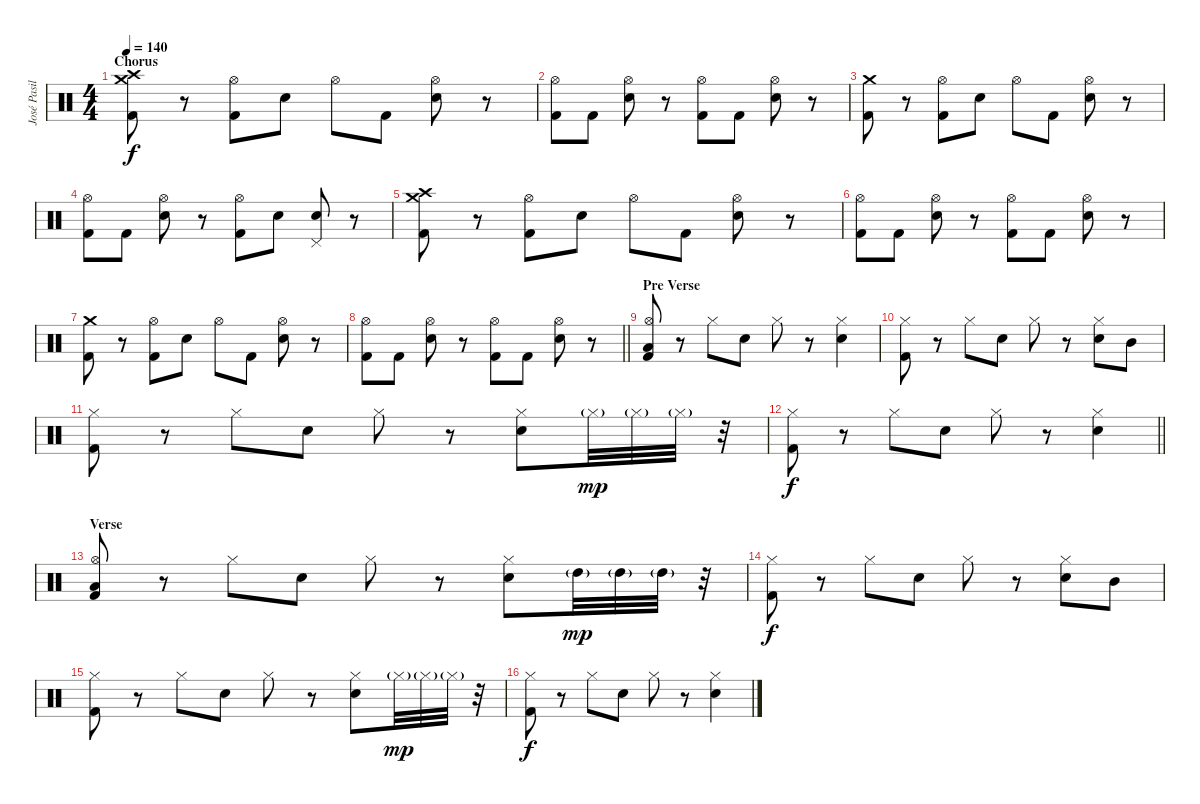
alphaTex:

\track ("José Pasillas [Drums]" "José Pasil") {instrument percussion}
\staff {score}
\articulation defaults
\ts (4 4)
\section ("" "Chorus")
\tempo 140
\clef neutral
\ks c
("Kick (hit) 2" "Crash high (hit)" "Crash medium (hit)").8{dy f} r.8 ("Kick (hit) 2" "Hi-Hat (open)").8 "Electric Snare (hit)".8 "Hi-Hat (open)".8 "Kick (hit) 2".8 ("Electric Snare (hit)" "Hi-Hat (open)").8 r.8 |
("Kick (hit) 2" "Hi-Hat (open)").8 "Kick (hit) 2".8 ("Electric Snare (hit)" "Hi-Hat (open)").8 r.8 ("Kick (hit) 2" "Hi-Hat (open)").8 "Kick (hit) 2".8 ("Electric Snare (hit)" "Hi-Hat (open)").8 r.8 |
("Kick (hit) 2" "Crash medium (hit)").8 r.8 ("Kick (hit) 2" "Hi-Hat (open)").8 "Electric Snare (hit)".8 "Hi-Hat (open)".8 "Kick (hit) 2".8 ("Electric Snare (hit)" "Hi-Hat (open)").8 r.8 |
("Kick (hit) 2" "Hi-Hat (open)").8 "Kick (hit) 2".8 ("Electric Snare (hit)" "Hi-Hat (open)").8 r.8 ("Kick (hit) 2" "Hi-Hat (open)").8 "Electric Snare (hit)".8 ("Electric Snare (hit)" "Pedal Hi-Hat (hit)").8 r.8 |
("Kick (hit) 2" "Crash high (hit)" "Crash medium (hit)").8 r.8 ("Kick (hit) 2" "Hi-Hat (open)").8 "Electric Snare (hit)".8 "Hi-Hat (open)".8 "Kick (hit) 2".8 ("Electric Snare (hit)" "Hi-Hat (open)").8 r.8 |
("Kick (hit) 2" "Hi-Hat (open)").8 "Kick (hit) 2".8 ("Electric Snare (hit)" "Hi-Hat (open)").8 r.8 ("Kick (hit) 2" "Hi-Hat (open)").8 "Kick (hit) 2".8 ("Electric Snare (hit)" "Hi-Hat (open)").8 r.8 |
("Kick (hit) 2" "Crash medium (hit)").8 r.8 ("Kick (hit) 2" "Hi-Hat (open)").8 "Electric Snare (hit)".8 "Hi-Hat (open)".8 "Kick (hit) 2".8 ("Electric Snare (hit)" "Hi-Hat (open)").8 r.8 |
\barLineRight lightlight
("Kick (hit) 2" "Hi-Hat (open)").8 "Kick (hit) 2".8 ("Electric Snare (hit)" "Hi-Hat (open)").8 r.8 ("Kick (hit) 2" "Hi-Hat (open)").8 "Kick (hit) 2".8 ("Electric Snare (hit)" "Hi-Hat (open)").8 r.8 |
\section ("" "Pre Verse")
("Kick (hit) 2" "Low Tom (hit)" "Hi-Hat (open)").8 r.8 "Hi-Hat (closed)".8 "Electric Snare (hit)".8 "Hi-Hat (closed)".8 r.8 ("Electric Snare (hit)" "Hi-Hat (closed)").4 |
("Kick (hit) 2" "Hi-Hat (closed)").8 r.8 "Hi-Hat (closed)".8 "Electric Snare (hit)".8 "Hi-Hat (closed)".8 r.8 ("Electric Snare (hit)" "Hi-Hat (closed)").8 "Mid Tom (hit)".8 |
("Kick (hit) 2" "Hi-Hat (closed)").8 r.8 "Hi-Hat (closed)".8 "Electric Snare (hit)".8 "Hi-Hat (closed)".8 r.8 ("Electric Snare (hit)" "Hi-Hat (closed)").8 "Hi-Hat (closed)"{g}.32{dy mp} "Hi-Hat (closed)"{g}.32 "Hi-Hat (closed)"{g}.32 r.32 |
\barLineRight lightlight
("Kick (hit) 2" "Hi-Hat (closed)").8{dy f} r.8 "Hi-Hat (closed)".8 "Electric Snare (hit)".8 "Hi-Hat (closed)".8 r.8 ("Electric Snare (hit)" "Hi-Hat (closed)").4 |
\section ("" "Verse")
("Kick (hit) 2" "Low Tom (hit)" "Hi-Hat (open)").8 r.8 "Hi-Hat (closed)".8 "Electric Snare (hit)".8 "Hi-Hat (closed)".8 r.8 ("Electric Snare (hit)" "Hi-Hat (closed)").8 "High Tom (hit)"{g}.32{dy mp} "High Tom (hit)"{g}.32 "High Tom (hit)"{g}.32 r.32 |
("Kick (hit) 2" "Hi-Hat (closed)").8{dy f} r.8 "Hi-Hat (closed)".8 "Electric Snare (hit)".8 "Hi-Hat (closed)".8 r.8 ("Electric Snare (hit)" "Hi-Hat (closed)").8 "Mid Tom (hit)".8 |
("Kick (hit) 2" "Hi-Hat (closed)").8 r.8 "Hi-Hat (closed)".8 "Electric Snare (hit)".8 "Hi-Hat (closed)".8 r.8 ("Electric Snare (hit)" "Hi-Hat (closed)").8 "Hi-Hat (closed)"{g}.32{dy mp} "Hi-Hat (closed)"{g}.32 "Hi-Hat (closed)"{g}.32 r.32 |
("Kick (hit) 2" "Hi-Hat (closed)").8{dy f} r.8 "Hi-Hat (closed)".8 "Electric Snare (hit)".8 "Hi-Hat (closed)".8 r.8 ("Electric Snare (hit)" "Hi-Hat (closed)").4
